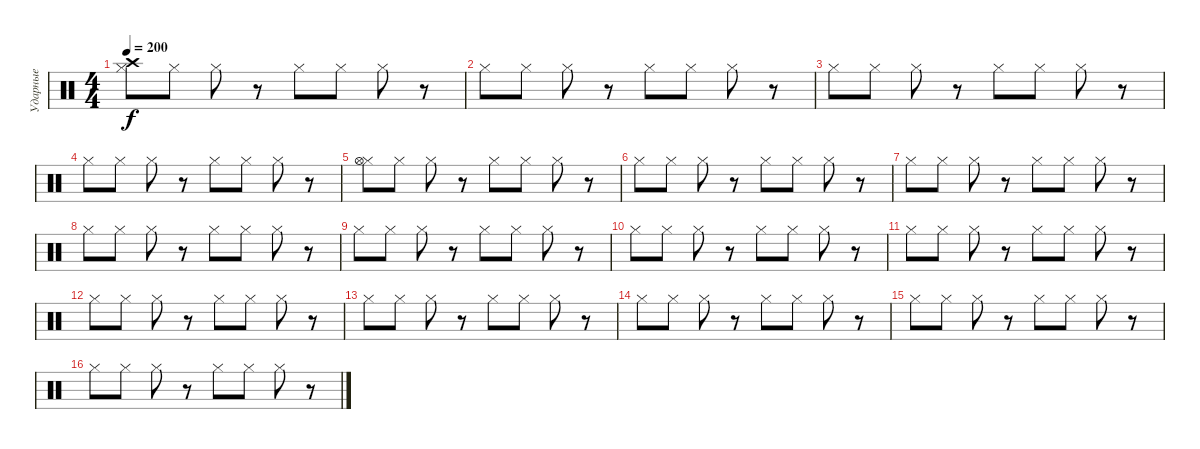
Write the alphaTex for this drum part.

\track ("Ударные" "Ударные") {instrument percussion}
\staff {score}
\articulation defaults
\ts (4 4)
\tempo 200
\clef neutral
\ks c
("Hi-Hat (closed)" "Crash high (hit)").8{dy f} "Hi-Hat (closed)".8 "Hi-Hat (closed)".8 r.8 "Hi-Hat (closed)".8 "Hi-Hat (closed)".8 "Hi-Hat (closed)".8 r.8 |
"Hi-Hat (closed)".8 "Hi-Hat (closed)".8 "Hi-Hat (closed)".8 r.8 "Hi-Hat (closed)".8 "Hi-Hat (closed)".8 "Hi-Hat (closed)".8 r.8 |
"Hi-Hat (closed)".8 "Hi-Hat (closed)".8 "Hi-Hat (closed)".8 r.8 "Hi-Hat (closed)".8 "Hi-Hat (closed)".8 "Hi-Hat (closed)".8 r.8 |
"Hi-Hat (closed)".8 "Hi-Hat (closed)".8 "Hi-Hat (closed)".8 r.8 "Hi-Hat (closed)".8 "Hi-Hat (closed)".8 "Hi-Hat (closed)".8 r.8 |
("Hi-Hat (closed)" "Hi-Hat (open)").8 "Hi-Hat (closed)".8 "Hi-Hat (closed)".8 r.8 "Hi-Hat (closed)".8 "Hi-Hat (closed)".8 "Hi-Hat (closed)".8 r.8 |
"Hi-Hat (closed)".8 "Hi-Hat (closed)".8 "Hi-Hat (closed)".8 r.8 "Hi-Hat (closed)".8 "Hi-Hat (closed)".8 "Hi-Hat (closed)".8 r.8 |
"Hi-Hat (closed)".8 "Hi-Hat (closed)".8 "Hi-Hat (closed)".8 r.8 "Hi-Hat (closed)".8 "Hi-Hat (closed)".8 "Hi-Hat (closed)".8 r.8 |
"Hi-Hat (closed)".8 "Hi-Hat (closed)".8 "Hi-Hat (closed)".8 r.8 "Hi-Hat (closed)".8 "Hi-Hat (closed)".8 "Hi-Hat (closed)".8 r.8 |
"Hi-Hat (closed)".8 "Hi-Hat (closed)".8 "Hi-Hat (closed)".8 r.8 "Hi-Hat (closed)".8 "Hi-Hat (closed)".8 "Hi-Hat (closed)".8 r.8 |
"Hi-Hat (closed)".8 "Hi-Hat (closed)".8 "Hi-Hat (closed)".8 r.8 "Hi-Hat (closed)".8 "Hi-Hat (closed)".8 "Hi-Hat (closed)".8 r.8 |
"Hi-Hat (closed)".8 "Hi-Hat (closed)".8 "Hi-Hat (closed)".8 r.8 "Hi-Hat (closed)".8 "Hi-Hat (closed)".8 "Hi-Hat (closed)".8 r.8 |
"Hi-Hat (closed)".8 "Hi-Hat (closed)".8 "Hi-Hat (closed)".8 r.8 "Hi-Hat (closed)".8 "Hi-Hat (closed)".8 "Hi-Hat (closed)".8 r.8 |
"Hi-Hat (closed)".8 "Hi-Hat (closed)".8 "Hi-Hat (closed)".8 r.8 "Hi-Hat (closed)".8 "Hi-Hat (closed)".8 "Hi-Hat (closed)".8 r.8 |
"Hi-Hat (closed)".8 "Hi-Hat (closed)".8 "Hi-Hat (closed)".8 r.8 "Hi-Hat (closed)".8 "Hi-Hat (closed)".8 "Hi-Hat (closed)".8 r.8 |
"Hi-Hat (closed)".8 "Hi-Hat (closed)".8 "Hi-Hat (closed)".8 r.8 "Hi-Hat (closed)".8 "Hi-Hat (closed)".8 "Hi-Hat (closed)".8 r.8 |
"Hi-Hat (closed)".8 "Hi-Hat (closed)".8 "Hi-Hat (closed)".8 r.8 "Hi-Hat (closed)".8 "Hi-Hat (closed)".8 "Hi-Hat (closed)".8 r.8
